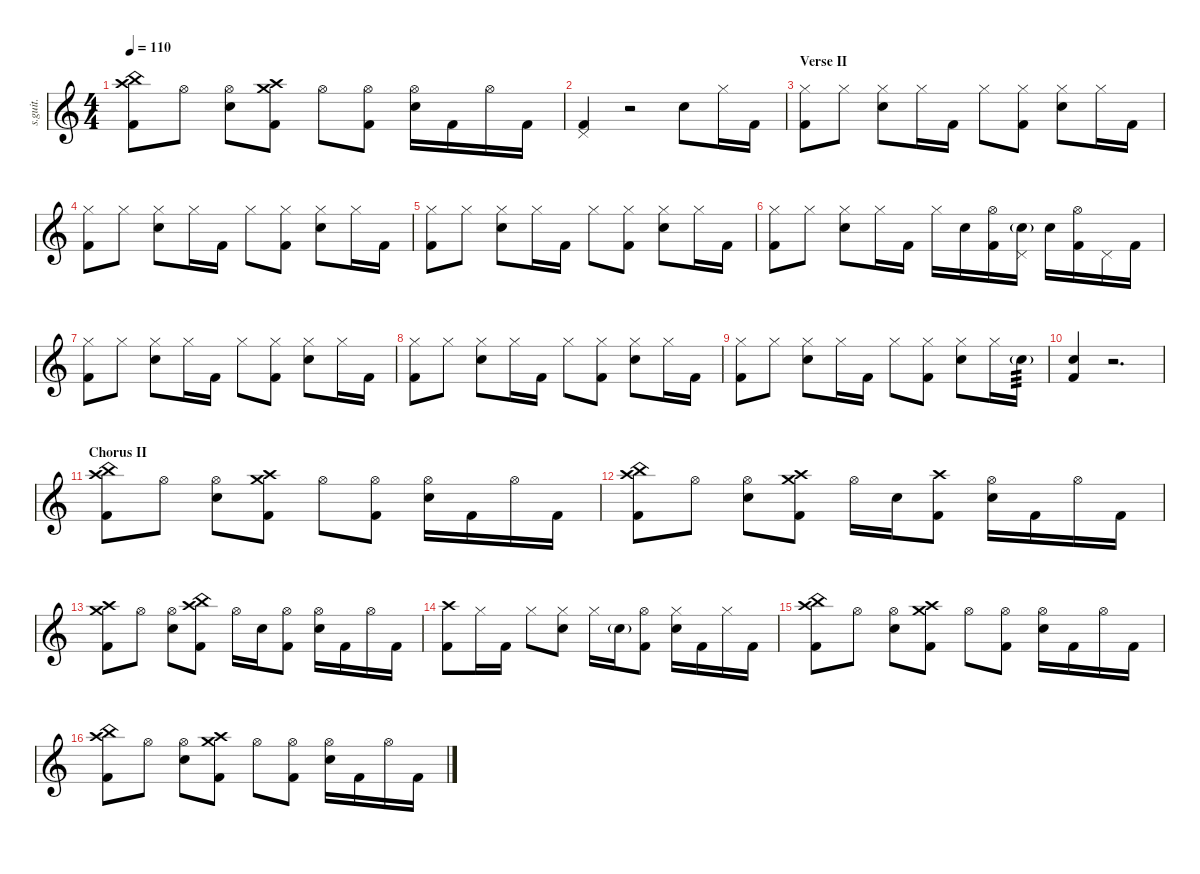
\defaultSystemsLayout 4
\hideDynamics
\bracketExtendMode nobrackets
\track ("John Otto" "s.guit.") {instrument percussion}
\staff {score}
\articulation defaults
\ts (4 4)
\tempo 110
\clef g2
\ks c
("Kick (hit) 2" "China (hit)" "Crash high (hit)").8{lyrics (0 "") lyrics (1 "") lyrics (2 "") lyrics (3 "") lyrics (4 "") dy ff} "Hi-Hat (open)".8{lyrics (0 "") lyrics (1 "") lyrics (2 "") lyrics (3 "") lyrics (4 "")} ("Hi-Hat (open)" "Snare (hit) 2").8{lyrics (0 "") lyrics (1 "") lyrics (2 "") lyrics (3 "") lyrics (4 "")} ("Crash high (hit)" "Kick (hit) 2" "Crash medium (hit)").8{lyrics (0 "") lyrics (1 "") lyrics (2 "") lyrics (3 "") lyrics (4 "")} "Hi-Hat (open)".8{lyrics (0 "") lyrics (1 "") lyrics (2 "") lyrics (3 "") lyrics (4 "")} ("Hi-Hat (open)" "Kick (hit) 2").8{lyrics (0 "") lyrics (1 "") lyrics (2 "") lyrics (3 "") lyrics (4 "")} ("Hi-Hat (open)" "Snare (hit) 2").16{lyrics (0 "") lyrics (1 "") lyrics (2 "") lyrics (3 "") lyrics (4 "")} "Kick (hit) 2".16{lyrics (0 "") lyrics (1 "") lyrics (2 "") lyrics (3 "") lyrics (4 "")} "Hi-Hat (open)".16{lyrics (0 "") lyrics (1 "") lyrics (2 "") lyrics (3 "") lyrics (4 "")} "Kick (hit) 2".16{lyrics (0 "") lyrics (1 "") lyrics (2 "") lyrics (3 "") lyrics (4 "")} |
("Kick (hit) 2" "Pedal Hi-Hat (hit)").4{lyrics (0 "") lyrics (1 "") lyrics (2 "") lyrics (3 "") lyrics (4 "")} r.2 "Snare (hit) 2".8{lyrics (0 "") lyrics (1 "") lyrics (2 "") lyrics (3 "") lyrics (4 "")} "Hi-Hat (closed)".16{lyrics (0 "") lyrics (1 "") lyrics (2 "") lyrics (3 "") lyrics (4 "")} "Kick (hit) 2".16{lyrics (0 "") lyrics (1 "") lyrics (2 "") lyrics (3 "") lyrics (4 "")} |
\section ("" "Verse II")
("Kick (hit) 2" "Hi-Hat (closed)").8{lyrics (0 "") lyrics (1 "") lyrics (2 "") lyrics (3 "") lyrics (4 "")} "Hi-Hat (closed)".8{lyrics (0 "") lyrics (1 "") lyrics (2 "") lyrics (3 "") lyrics (4 "")} ("Hi-Hat (closed)" "Snare (hit) 2").8{lyrics (0 "") lyrics (1 "") lyrics (2 "") lyrics (3 "") lyrics (4 "")} "Hi-Hat (closed)".16{lyrics (0 "") lyrics (1 "") lyrics (2 "") lyrics (3 "") lyrics (4 "")} "Kick (hit) 2".16{lyrics (0 "") lyrics (1 "") lyrics (2 "") lyrics (3 "") lyrics (4 "")} "Hi-Hat (closed)".8{lyrics (0 "") lyrics (1 "") lyrics (2 "") lyrics (3 "") lyrics (4 "")} ("Kick (hit) 2" "Hi-Hat (closed)").8{lyrics (0 "") lyrics (1 "") lyrics (2 "") lyrics (3 "") lyrics (4 "")} ("Hi-Hat (closed)" "Snare (hit) 2").8{lyrics (0 "") lyrics (1 "") lyrics (2 "") lyrics (3 "") lyrics (4 "")} "Hi-Hat (closed)".16{lyrics (0 "") lyrics (1 "") lyrics (2 "") lyrics (3 "") lyrics (4 "")} "Kick (hit) 2".16{lyrics (0 "") lyrics (1 "") lyrics (2 "") lyrics (3 "") lyrics (4 "")} |
("Kick (hit) 2" "Hi-Hat (closed)").8{lyrics (0 "") lyrics (1 "") lyrics (2 "") lyrics (3 "") lyrics (4 "")} "Hi-Hat (closed)".8{lyrics (0 "") lyrics (1 "") lyrics (2 "") lyrics (3 "") lyrics (4 "")} ("Hi-Hat (closed)" "Snare (hit) 2").8{lyrics (0 "") lyrics (1 "") lyrics (2 "") lyrics (3 "") lyrics (4 "")} "Hi-Hat (closed)".16{lyrics (0 "") lyrics (1 "") lyrics (2 "") lyrics (3 "") lyrics (4 "")} "Kick (hit) 2".16{lyrics (0 "") lyrics (1 "") lyrics (2 "") lyrics (3 "") lyrics (4 "")} "Hi-Hat (closed)".8{lyrics (0 "") lyrics (1 "") lyrics (2 "") lyrics (3 "") lyrics (4 "")} ("Kick (hit) 2" "Hi-Hat (closed)").8{lyrics (0 "") lyrics (1 "") lyrics (2 "") lyrics (3 "") lyrics (4 "")} ("Hi-Hat (closed)" "Snare (hit) 2").8{lyrics (0 "") lyrics (1 "") lyrics (2 "") lyrics (3 "") lyrics (4 "")} "Hi-Hat (closed)".16{lyrics (0 "") lyrics (1 "") lyrics (2 "") lyrics (3 "") lyrics (4 "")} "Kick (hit) 2".16{lyrics (0 "") lyrics (1 "") lyrics (2 "") lyrics (3 "") lyrics (4 "")} |
("Kick (hit) 2" "Hi-Hat (closed)").8{lyrics (0 "") lyrics (1 "") lyrics (2 "") lyrics (3 "") lyrics (4 "")} "Hi-Hat (closed)".8{lyrics (0 "") lyrics (1 "") lyrics (2 "") lyrics (3 "") lyrics (4 "")} ("Hi-Hat (closed)" "Snare (hit) 2").8{lyrics (0 "") lyrics (1 "") lyrics (2 "") lyrics (3 "") lyrics (4 "")} "Hi-Hat (closed)".16{lyrics (0 "") lyrics (1 "") lyrics (2 "") lyrics (3 "") lyrics (4 "")} "Kick (hit) 2".16{lyrics (0 "") lyrics (1 "") lyrics (2 "") lyrics (3 "") lyrics (4 "")} "Hi-Hat (closed)".8{lyrics (0 "") lyrics (1 "") lyrics (2 "") lyrics (3 "") lyrics (4 "")} ("Kick (hit) 2" "Hi-Hat (closed)").8{lyrics (0 "") lyrics (1 "") lyrics (2 "") lyrics (3 "") lyrics (4 "")} ("Hi-Hat (closed)" "Snare (hit) 2").8{lyrics (0 "") lyrics (1 "") lyrics (2 "") lyrics (3 "") lyrics (4 "")} "Hi-Hat (closed)".16{lyrics (0 "") lyrics (1 "") lyrics (2 "") lyrics (3 "") lyrics (4 "")} "Kick (hit) 2".16{lyrics (0 "") lyrics (1 "") lyrics (2 "") lyrics (3 "") lyrics (4 "")} |
("Kick (hit) 2" "Hi-Hat (closed)").8{lyrics (0 "") lyrics (1 "") lyrics (2 "") lyrics (3 "") lyrics (4 "")} "Hi-Hat (closed)".8{lyrics (0 "") lyrics (1 "") lyrics (2 "") lyrics (3 "") lyrics (4 "")} ("Hi-Hat (closed)" "Snare (hit) 2").8{lyrics (0 "") lyrics (1 "") lyrics (2 "") lyrics (3 "") lyrics (4 "")} "Hi-Hat (closed)".16{lyrics (0 "") lyrics (1 "") lyrics (2 "") lyrics (3 "") lyrics (4 "")} "Kick (hit) 2".16{lyrics (0 "") lyrics (1 "") lyrics (2 "") lyrics (3 "") lyrics (4 "")} "Hi-Hat (closed)".16{lyrics (0 "") lyrics (1 "") lyrics (2 "") lyrics (3 "") lyrics (4 "")} "Snare (hit) 2".16{lyrics (0 "") lyrics (1 "") lyrics (2 "") lyrics (3 "") lyrics (4 "")} ("Kick (hit) 2" "Hi-Hat (open)").16{lyrics (0 "") lyrics (1 "") lyrics (2 "") lyrics (3 "") lyrics (4 "")} ("Pedal Hi-Hat (hit)" "Snare (hit) 2"{g}).16{lyrics (0 "") lyrics (1 "") lyrics (2 "") lyrics (3 "") lyrics (4 "")} "Snare (hit) 2".16{lyrics (0 "") lyrics (1 "") lyrics (2 "") lyrics (3 "") lyrics (4 "")} ("Kick (hit) 2" "Hi-Hat (open)").16{lyrics (0 "") lyrics (1 "") lyrics (2 "") lyrics (3 "") lyrics (4 "")} "Pedal Hi-Hat (hit)".16{lyrics (0 "") lyrics (1 "") lyrics (2 "") lyrics (3 "") lyrics (4 "")} "Kick (hit) 2".16{lyrics (0 "") lyrics (1 "") lyrics (2 "") lyrics (3 "") lyrics (4 "")} |
("Kick (hit) 2" "Hi-Hat (closed)").8{lyrics (0 "") lyrics (1 "") lyrics (2 "") lyrics (3 "") lyrics (4 "")} "Hi-Hat (closed)".8{lyrics (0 "") lyrics (1 "") lyrics (2 "") lyrics (3 "") lyrics (4 "")} ("Hi-Hat (closed)" "Snare (hit) 2").8{lyrics (0 "") lyrics (1 "") lyrics (2 "") lyrics (3 "") lyrics (4 "")} "Hi-Hat (closed)".16{lyrics (0 "") lyrics (1 "") lyrics (2 "") lyrics (3 "") lyrics (4 "")} "Kick (hit) 2".16{lyrics (0 "") lyrics (1 "") lyrics (2 "") lyrics (3 "") lyrics (4 "")} "Hi-Hat (closed)".8{lyrics (0 "") lyrics (1 "") lyrics (2 "") lyrics (3 "") lyrics (4 "")} ("Kick (hit) 2" "Hi-Hat (closed)").8{lyrics (0 "") lyrics (1 "") lyrics (2 "") lyrics (3 "") lyrics (4 "")} ("Hi-Hat (closed)" "Snare (hit) 2").8{lyrics (0 "") lyrics (1 "") lyrics (2 "") lyrics (3 "") lyrics (4 "")} "Hi-Hat (closed)".16{lyrics (0 "") lyrics (1 "") lyrics (2 "") lyrics (3 "") lyrics (4 "")} "Kick (hit) 2".16{lyrics (0 "") lyrics (1 "") lyrics (2 "") lyrics (3 "") lyrics (4 "")} |
("Kick (hit) 2" "Hi-Hat (closed)").8{lyrics (0 "") lyrics (1 "") lyrics (2 "") lyrics (3 "") lyrics (4 "")} "Hi-Hat (closed)".8{lyrics (0 "") lyrics (1 "") lyrics (2 "") lyrics (3 "") lyrics (4 "")} ("Hi-Hat (closed)" "Snare (hit) 2").8{lyrics (0 "") lyrics (1 "") lyrics (2 "") lyrics (3 "") lyrics (4 "")} "Hi-Hat (closed)".16{lyrics (0 "") lyrics (1 "") lyrics (2 "") lyrics (3 "") lyrics (4 "")} "Kick (hit) 2".16{lyrics (0 "") lyrics (1 "") lyrics (2 "") lyrics (3 "") lyrics (4 "")} "Hi-Hat (closed)".8{lyrics (0 "") lyrics (1 "") lyrics (2 "") lyrics (3 "") lyrics (4 "")} ("Kick (hit) 2" "Hi-Hat (closed)").8{lyrics (0 "") lyrics (1 "") lyrics (2 "") lyrics (3 "") lyrics (4 "")} ("Hi-Hat (closed)" "Snare (hit) 2").8{lyrics (0 "") lyrics (1 "") lyrics (2 "") lyrics (3 "") lyrics (4 "")} "Hi-Hat (closed)".16{lyrics (0 "") lyrics (1 "") lyrics (2 "") lyrics (3 "") lyrics (4 "")} "Kick (hit) 2".16{lyrics (0 "") lyrics (1 "") lyrics (2 "") lyrics (3 "") lyrics (4 "")} |
("Kick (hit) 2" "Hi-Hat (closed)").8{lyrics (0 "") lyrics (1 "") lyrics (2 "") lyrics (3 "") lyrics (4 "")} "Hi-Hat (closed)".8{lyrics (0 "") lyrics (1 "") lyrics (2 "") lyrics (3 "") lyrics (4 "")} ("Hi-Hat (closed)" "Snare (hit) 2").8{lyrics (0 "") lyrics (1 "") lyrics (2 "") lyrics (3 "") lyrics (4 "")} "Hi-Hat (closed)".16{lyrics (0 "") lyrics (1 "") lyrics (2 "") lyrics (3 "") lyrics (4 "")} "Kick (hit) 2".16{lyrics (0 "") lyrics (1 "") lyrics (2 "") lyrics (3 "") lyrics (4 "")} "Hi-Hat (closed)".8{lyrics (0 "") lyrics (1 "") lyrics (2 "") lyrics (3 "") lyrics (4 "")} ("Kick (hit) 2" "Hi-Hat (closed)").8{lyrics (0 "") lyrics (1 "") lyrics (2 "") lyrics (3 "") lyrics (4 "")} ("Hi-Hat (closed)" "Snare (hit) 2").8{lyrics (0 "") lyrics (1 "") lyrics (2 "") lyrics (3 "") lyrics (4 "")} "Hi-Hat (closed)".16{lyrics (0 "") lyrics (1 "") lyrics (2 "") lyrics (3 "") lyrics (4 "")} "Snare (hit) 2"{g}.16{lyrics (0 "") lyrics (1 "") lyrics (2 "") lyrics (3 "") lyrics (4 "") tp 3} |
("Kick (hit) 2" "Snare (hit) 2").4{lyrics (0 "") lyrics (1 "") lyrics (2 "") lyrics (3 "") lyrics (4 "")} r.2{d} |
\section ("" "Chorus II")
("Crash high (hit)" "Kick (hit) 2" "China (hit)").8{lyrics (0 "") lyrics (1 "") lyrics (2 "") lyrics (3 "") lyrics (4 "")} "Hi-Hat (open)".8{lyrics (0 "") lyrics (1 "") lyrics (2 "") lyrics (3 "") lyrics (4 "")} ("Hi-Hat (open)" "Snare (hit) 2").8{lyrics (0 "") lyrics (1 "") lyrics (2 "") lyrics (3 "") lyrics (4 "")} ("Crash high (hit)" "Kick (hit) 2" "Crash medium (hit)").8{lyrics (0 "") lyrics (1 "") lyrics (2 "") lyrics (3 "") lyrics (4 "")} "Hi-Hat (open)".8{lyrics (0 "") lyrics (1 "") lyrics (2 "") lyrics (3 "") lyrics (4 "")} ("Hi-Hat (open)" "Kick (hit) 2").8{lyrics (0 "") lyrics (1 "") lyrics (2 "") lyrics (3 "") lyrics (4 "")} ("Hi-Hat (open)" "Snare (hit) 2").16{lyrics (0 "") lyrics (1 "") lyrics (2 "") lyrics (3 "") lyrics (4 "")} "Kick (hit) 2".16{lyrics (0 "") lyrics (1 "") lyrics (2 "") lyrics (3 "") lyrics (4 "")} "Hi-Hat (open)".16{lyrics (0 "") lyrics (1 "") lyrics (2 "") lyrics (3 "") lyrics (4 "")} "Kick (hit) 2".16{lyrics (0 "") lyrics (1 "") lyrics (2 "") lyrics (3 "") lyrics (4 "")} |
("Crash high (hit)" "Kick (hit) 2" "China (hit)").8{lyrics (0 "") lyrics (1 "") lyrics (2 "") lyrics (3 "") lyrics (4 "")} "Hi-Hat (open)".8{lyrics (0 "") lyrics (1 "") lyrics (2 "") lyrics (3 "") lyrics (4 "")} ("Hi-Hat (open)" "Snare (hit) 2").8{lyrics (0 "") lyrics (1 "") lyrics (2 "") lyrics (3 "") lyrics (4 "")} ("Crash high (hit)" "Kick (hit) 2" "Crash medium (hit)").8{lyrics (0 "") lyrics (1 "") lyrics (2 "") lyrics (3 "") lyrics (4 "")} "Hi-Hat (open)".16{lyrics (0 "") lyrics (1 "") lyrics (2 "") lyrics (3 "") lyrics (4 "")} "Snare (hit) 2".16{lyrics (0 "") lyrics (1 "") lyrics (2 "") lyrics (3 "") lyrics (4 "")} ("Kick (hit) 2" "Crash high (hit)").8{lyrics (0 "") lyrics (1 "") lyrics (2 "") lyrics (3 "") lyrics (4 "")} ("Hi-Hat (open)" "Snare (hit) 2").16{lyrics (0 "") lyrics (1 "") lyrics (2 "") lyrics (3 "") lyrics (4 "")} "Kick (hit) 2".16{lyrics (0 "") lyrics (1 "") lyrics (2 "") lyrics (3 "") lyrics (4 "")} "Hi-Hat (open)".16{lyrics (0 "") lyrics (1 "") lyrics (2 "") lyrics (3 "") lyrics (4 "")} "Kick (hit) 2".16{lyrics (0 "") lyrics (1 "") lyrics (2 "") lyrics (3 "") lyrics (4 "")} |
("Kick (hit) 2" "Crash medium (hit)" "Crash high (hit)").8{lyrics (0 "") lyrics (1 "") lyrics (2 "") lyrics (3 "") lyrics (4 "")} "Hi-Hat (open)".8{lyrics (0 "") lyrics (1 "") lyrics (2 "") lyrics (3 "") lyrics (4 "")} ("Hi-Hat (open)" "Snare (hit) 2").8{lyrics (0 "") lyrics (1 "") lyrics (2 "") lyrics (3 "") lyrics (4 "")} ("Crash high (hit)" "Kick (hit) 2" "China (hit)").8{lyrics (0 "") lyrics (1 "") lyrics (2 "") lyrics (3 "") lyrics (4 "")} "Hi-Hat (open)".16{lyrics (0 "") lyrics (1 "") lyrics (2 "") lyrics (3 "") lyrics (4 "")} "Snare (hit) 2".16{lyrics (0 "") lyrics (1 "") lyrics (2 "") lyrics (3 "") lyrics (4 "")} ("Hi-Hat (open)" "Kick (hit) 2").8{lyrics (0 "") lyrics (1 "") lyrics (2 "") lyrics (3 "") lyrics (4 "")} ("Hi-Hat (open)" "Snare (hit) 2").16{lyrics (0 "") lyrics (1 "") lyrics (2 "") lyrics (3 "") lyrics (4 "")} "Kick (hit) 2".16{lyrics (0 "") lyrics (1 "") lyrics (2 "") lyrics (3 "") lyrics (4 "")} "Hi-Hat (open)".16{lyrics (0 "") lyrics (1 "") lyrics (2 "") lyrics (3 "") lyrics (4 "")} "Kick (hit) 2".16{lyrics (0 "") lyrics (1 "") lyrics (2 "") lyrics (3 "") lyrics (4 "")} |
("Kick (hit) 2" "Crash high (hit)").8{lyrics (0 "") lyrics (1 "") lyrics (2 "") lyrics (3 "") lyrics (4 "")} "Hi-Hat (closed)".16{lyrics (0 "") lyrics (1 "") lyrics (2 "") lyrics (3 "") lyrics (4 "")} "Kick (hit) 2".16{lyrics (0 "") lyrics (1 "") lyrics (2 "") lyrics (3 "") lyrics (4 "")} "Hi-Hat (closed)".8{lyrics (0 "") lyrics (1 "") lyrics (2 "") lyrics (3 "") lyrics (4 "")} ("Hi-Hat (closed)" "Snare (hit) 2").8{lyrics (0 "") lyrics (1 "") lyrics (2 "") lyrics (3 "") lyrics (4 "")} "Hi-Hat (closed)".16{lyrics (0 "") lyrics (1 "") lyrics (2 "") lyrics (3 "") lyrics (4 "")} "Snare (hit) 2"{g}.16{lyrics (0 "") lyrics (1 "") lyrics (2 "") lyrics (3 "") lyrics (4 "")} ("Hi-Hat (open)" "Kick (hit) 2").8{lyrics (0 "") lyrics (1 "") lyrics (2 "") lyrics (3 "") lyrics (4 "")} ("Hi-Hat (closed)" "Snare (hit) 2").16{lyrics (0 "") lyrics (1 "") lyrics (2 "") lyrics (3 "") lyrics (4 "")} "Kick (hit) 2".16{lyrics (0 "") lyrics (1 "") lyrics (2 "") lyrics (3 "") lyrics (4 "")} "Hi-Hat (closed)".16{lyrics (0 "") lyrics (1 "") lyrics (2 "") lyrics (3 "") lyrics (4 "")} "Kick (hit) 2".16{lyrics (0 "") lyrics (1 "") lyrics (2 "") lyrics (3 "") lyrics (4 "")} |
("Crash high (hit)" "Kick (hit) 2" "China (hit)").8{lyrics (0 "") lyrics (1 "") lyrics (2 "") lyrics (3 "") lyrics (4 "")} "Hi-Hat (open)".8{lyrics (0 "") lyrics (1 "") lyrics (2 "") lyrics (3 "") lyrics (4 "")} ("Hi-Hat (open)" "Snare (hit) 2").8{lyrics (0 "") lyrics (1 "") lyrics (2 "") lyrics (3 "") lyrics (4 "")} ("Crash high (hit)" "Kick (hit) 2" "Crash medium (hit)").8{lyrics (0 "") lyrics (1 "") lyrics (2 "") lyrics (3 "") lyrics (4 "")} "Hi-Hat (open)".8{lyrics (0 "") lyrics (1 "") lyrics (2 "") lyrics (3 "") lyrics (4 "")} ("Hi-Hat (open)" "Kick (hit) 2").8{lyrics (0 "") lyrics (1 "") lyrics (2 "") lyrics (3 "") lyrics (4 "")} ("Hi-Hat (open)" "Snare (hit) 2").16{lyrics (0 "") lyrics (1 "") lyrics (2 "") lyrics (3 "") lyrics (4 "")} "Kick (hit) 2".16{lyrics (0 "") lyrics (1 "") lyrics (2 "") lyrics (3 "") lyrics (4 "")} "Hi-Hat (open)".16{lyrics (0 "") lyrics (1 "") lyrics (2 "") lyrics (3 "") lyrics (4 "")} "Kick (hit) 2".16{lyrics (0 "") lyrics (1 "") lyrics (2 "") lyrics (3 "") lyrics (4 "")} |
("Crash high (hit)" "Kick (hit) 2" "China (hit)").8{lyrics (0 "") lyrics (1 "") lyrics (2 "") lyrics (3 "") lyrics (4 "")} "Hi-Hat (open)".8{lyrics (0 "") lyrics (1 "") lyrics (2 "") lyrics (3 "") lyrics (4 "")} ("Hi-Hat (open)" "Snare (hit) 2").8{lyrics (0 "") lyrics (1 "") lyrics (2 "") lyrics (3 "") lyrics (4 "")} ("Crash high (hit)" "Kick (hit) 2" "Crash medium (hit)").8{lyrics (0 "") lyrics (1 "") lyrics (2 "") lyrics (3 "") lyrics (4 "")} "Hi-Hat (open)".8{lyrics (0 "") lyrics (1 "") lyrics (2 "") lyrics (3 "") lyrics (4 "")} ("Hi-Hat (open)" "Kick (hit) 2").8{lyrics (0 "") lyrics (1 "") lyrics (2 "") lyrics (3 "") lyrics (4 "")} ("Hi-Hat (open)" "Snare (hit) 2").16{lyrics (0 "") lyrics (1 "") lyrics (2 "") lyrics (3 "") lyrics (4 "")} "Kick (hit) 2".16{lyrics (0 "") lyrics (1 "") lyrics (2 "") lyrics (3 "") lyrics (4 "")} "Hi-Hat (open)".16{lyrics (0 "") lyrics (1 "") lyrics (2 "") lyrics (3 "") lyrics (4 "")} "Kick (hit) 2".16{lyrics (0 "") lyrics (1 "") lyrics (2 "") lyrics (3 "") lyrics (4 "")}
